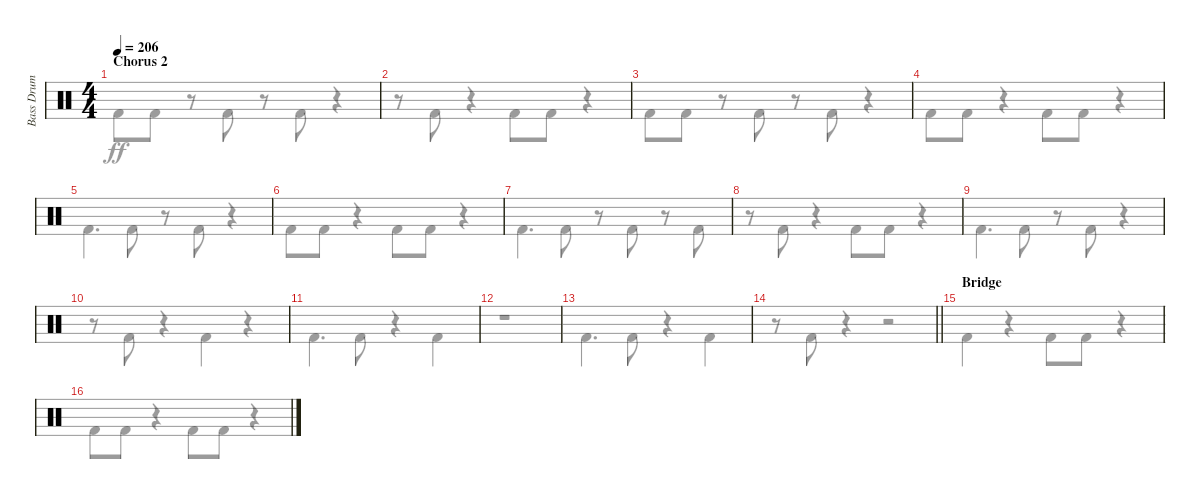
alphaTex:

\track ("Bass Drum" "Bass Drum") {instrument percussion}
\staff {score}
\articulation defaults
\voice
\ts (4 4)
\section ("" "Chorus 2")
\tempo 206
\clef neutral
\ks c
|
|
|
|
|
|
|
|
|
|
|
|
|
\barLineRight lightlight
|
\section ("" "Bridge")
|
\voice
\clef neutral
\ks c "Kick (hit) 2".8{dy ff} "Kick (hit) 2".8
r.8 "Kick (hit) 2".8 r.8 "Kick (hit) 2".8 r.4 |
r.8 "Kick (hit) 2".8 r.4 "Kick (hit) 2".8 "Kick (hit) 2".8 r.4 |
"Kick (hit) 2".8 "Kick (hit) 2".8 r.8 "Kick (hit) 2".8 r.8 "Kick (hit) 2".8 r.4 |
"Kick (hit) 2".8 "Kick (hit) 2".8 r.4 "Kick (hit) 2".8 "Kick (hit) 2".8 r.4 |
"Kick (hit) 2".4{d} "Kick (hit) 2".8 r.8 "Kick (hit) 2".8 r.4 |
"Kick (hit) 2".8 "Kick (hit) 2".8 r.4 "Kick (hit) 2".8 "Kick (hit) 2".8 r.4 |
"Kick (hit) 2".4{d} "Kick (hit) 2".8 r.8 "Kick (hit) 2".8 r.8 "Kick (hit) 2".8 |
r.8 "Kick (hit) 2".8 r.4 "Kick (hit) 2".8 "Kick (hit) 2".8 r.4 |
"Kick (hit) 2".4{d} "Kick (hit) 2".8 r.8 "Kick (hit) 2".8 r.4 |
r.8 "Kick (hit) 2".8 r.4 "Kick (hit) 2".4 r.4 |
"Kick (hit) 2".4{d} "Kick (hit) 2".8 r.4 "Kick (hit) 2".4 |
r.1 |
"Kick (hit) 2".4{d} "Kick (hit) 2".8 r.4 "Kick (hit) 2".4 |
\barLineRight lightlight
r.8 "Kick (hit) 2".8 r.4 r.2 |
"Kick (hit) 2".4 r.4 "Kick (hit) 2".8 "Kick (hit) 2".8 r.4 |
"Kick (hit) 2".8 "Kick (hit) 2".8 r.4 "Kick (hit) 2".8 "Kick (hit) 2".8 r.4
